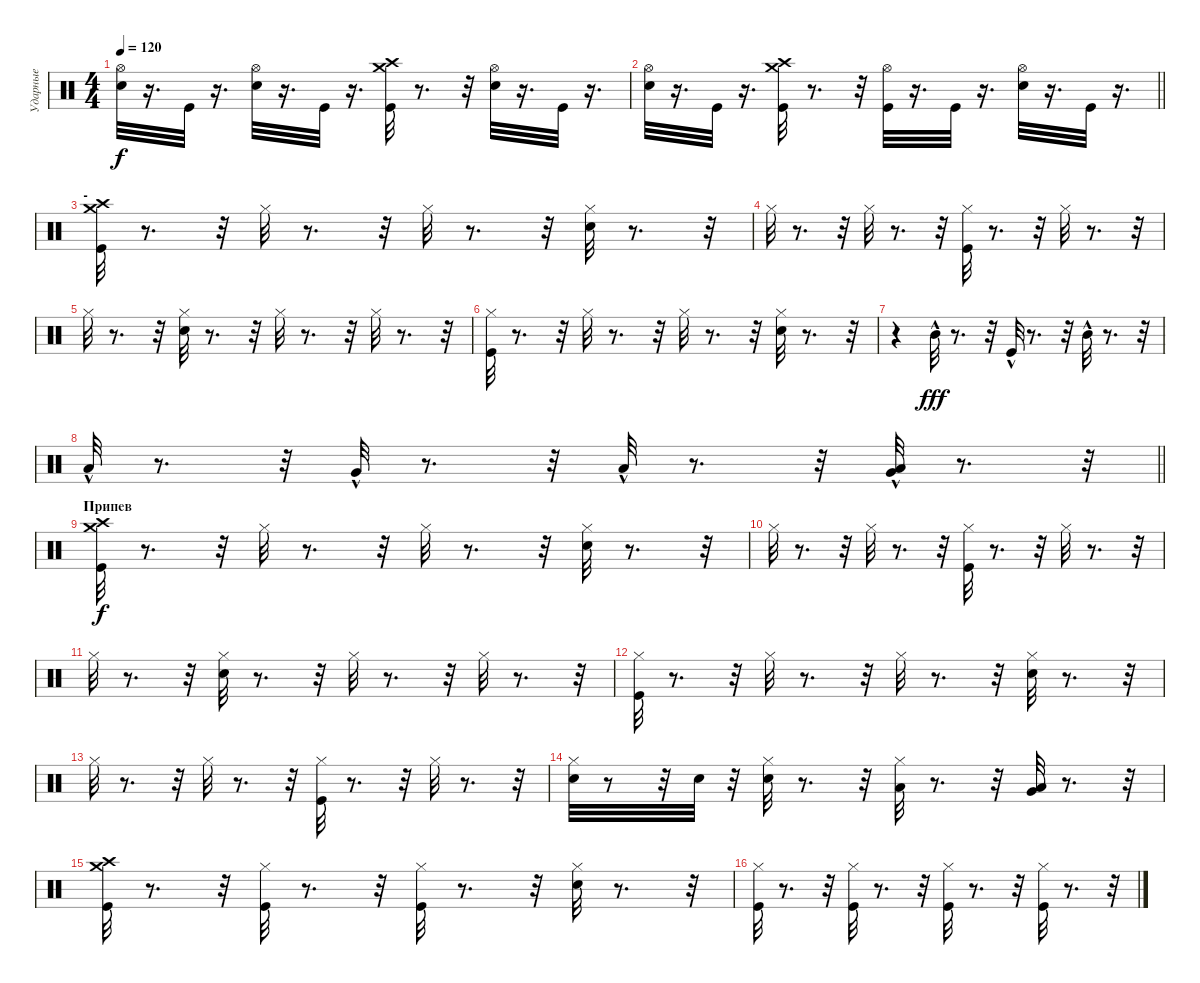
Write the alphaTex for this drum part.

\track ("Ударные" "Ударные") {instrument percussion}
\staff {score}
\articulation defaults
\ts (4 4)
\tempo 120
\clef neutral
\ks c
("Hi-Hat (open)" "Snare (hit) 2").32{dy f} r.16{d} "Kick (hit)".32 r.16{d} ("Hi-Hat (open)" "Snare (hit) 2").32 r.16{d} "Kick (hit)".32 r.16{d} ("Crash high (hit)" "Crash medium (hit)" "Kick (hit)").32 r.8{d} r.32 ("Hi-Hat (open)" "Snare (hit) 2").32 r.16{d} "Kick (hit)".32 r.16{d} |
\barLineRight lightlight
("Hi-Hat (open)" "Snare (hit) 2").32 r.16{d} "Kick (hit)".32 r.16{d} ("Crash high (hit)" "Crash medium (hit)" "Kick (hit)").32 r.8{d} r.32 ("Hi-Hat (open)" "Kick (hit)").32 r.16{d} "Kick (hit)".32 r.16{d} ("Hi-Hat (open)" "Snare (hit) 2").32 r.16{d} "Kick (hit)".32 r.16{d} |
\section ("" "-")
("Kick (hit)" "Crash medium (hit)" "Crash high (hit)").32 r.8{d} r.32 "Hi-Hat (closed)".32 r.8{d} r.32 "Hi-Hat (closed)".32 r.8{d} r.32 ("Hi-Hat (closed)" "Snare (hit) 2").32 r.8{d} r.32 |
"Hi-Hat (closed)".32 r.8{d} r.32 "Hi-Hat (closed)".32 r.8{d} r.32 ("Kick (hit)" "Hi-Hat (closed)").32 r.8{d} r.32 "Hi-Hat (closed)".32 r.8{d} r.32 |
"Hi-Hat (closed)".32 r.8{d} r.32 ("Snare (hit) 2" "Hi-Hat (closed)").32 r.8{d} r.32 "Hi-Hat (closed)".32 r.8{d} r.32 "Hi-Hat (closed)".32 r.8{d} r.32 |
("Kick (hit)" "Hi-Hat (closed)").32 r.8{d} r.32 "Hi-Hat (closed)".32 r.8{d} r.32 "Hi-Hat (closed)".32 r.8{d} r.32 ("Snare (hit) 2" "Hi-Hat (closed)").32 r.8{d} r.32 |
r.4 "Mid Tom (hit)"{hac}.32{dy fff} r.8{d} r.32 "Kick (hit)"{hac}.32 r.8{d} r.32 "Mid Tom (hit)"{hac}.32 r.8{d} r.32 |
\barLineRight lightlight "Low Tom (hit)"{hac}.32
r.8{d} r.32 "Very Low Tom (hit)"{hac}.32 r.8{d} r.32 "Low Tom (hit)"{hac}.32 r.8{d} r.32 ("Low Floor Tom (hit)"{hac} "Very Low Tom (hit)"{hac}).32 r.8{d} r.32 |
\section ("" "Припев")
("Crash high (hit)" "Crash medium (hit)" "Kick (hit)").32{dy f} r.8{d} r.32 "Hi-Hat (closed)".32 r.8{d} r.32 "Hi-Hat (closed)".32 r.8{d} r.32 ("Hi-Hat (closed)" "Snare (hit) 2").32 r.8{d} r.32 |
"Hi-Hat (closed)".32 r.8{d} r.32 "Hi-Hat (closed)".32 r.8{d} r.32 ("Hi-Hat (closed)" "Kick (hit)").32 r.8{d} r.32 "Hi-Hat (closed)".32 r.8{d} r.32 |
"Hi-Hat (closed)".32 r.8{d} r.32 ("Hi-Hat (closed)" "Snare (hit) 2").32 r.8{d} r.32 "Hi-Hat (closed)".32 r.8{d} r.32 "Hi-Hat (closed)".32 r.8{d} r.32 |
("Hi-Hat (closed)" "Kick (hit)").32 r.8{d} r.32 "Hi-Hat (closed)".32 r.8{d} r.32 "Hi-Hat (closed)".32 r.8{d} r.32 ("Snare (hit) 2" "Hi-Hat (closed)").32 r.8{d} r.32 |
"Hi-Hat (closed)".32 r.8{d} r.32 "Hi-Hat (closed)".32 r.8{d} r.32 ("Hi-Hat (closed)" "Kick (hit)").32 r.8{d} r.32 "Hi-Hat (closed)".32 r.8{d} r.32 |
("Snare (hit) 2" "Hi-Hat (closed)").32 r.8 r.32 "Snare (hit) 2".32 r.32 ("Snare (hit) 2" "Hi-Hat (closed)").32 r.8{d} r.32 ("Low Tom (hit)" "Hi-Hat (closed)").32 r.8{d} r.32 ("Very Low Tom (hit)" "Low Floor Tom (hit)").32 r.8{d} r.32 |
("Crash medium (hit)" "Crash high (hit)" "Kick (hit)").32 r.8{d} r.32 ("Kick (hit)" "Hi-Hat (closed)").32 r.8{d} r.32 ("Kick (hit)" "Hi-Hat (closed)").32 r.8{d} r.32 ("Hi-Hat (closed)" "Snare (hit) 2").32 r.8{d} r.32 |
("Kick (hit)" "Hi-Hat (closed)").32 r.8{d} r.32 ("Kick (hit)" "Hi-Hat (closed)").32 r.8{d} r.32 ("Hi-Hat (closed)" "Kick (hit)").32 r.8{d} r.32 ("Kick (hit)" "Hi-Hat (closed)").32 r.8{d} r.32
